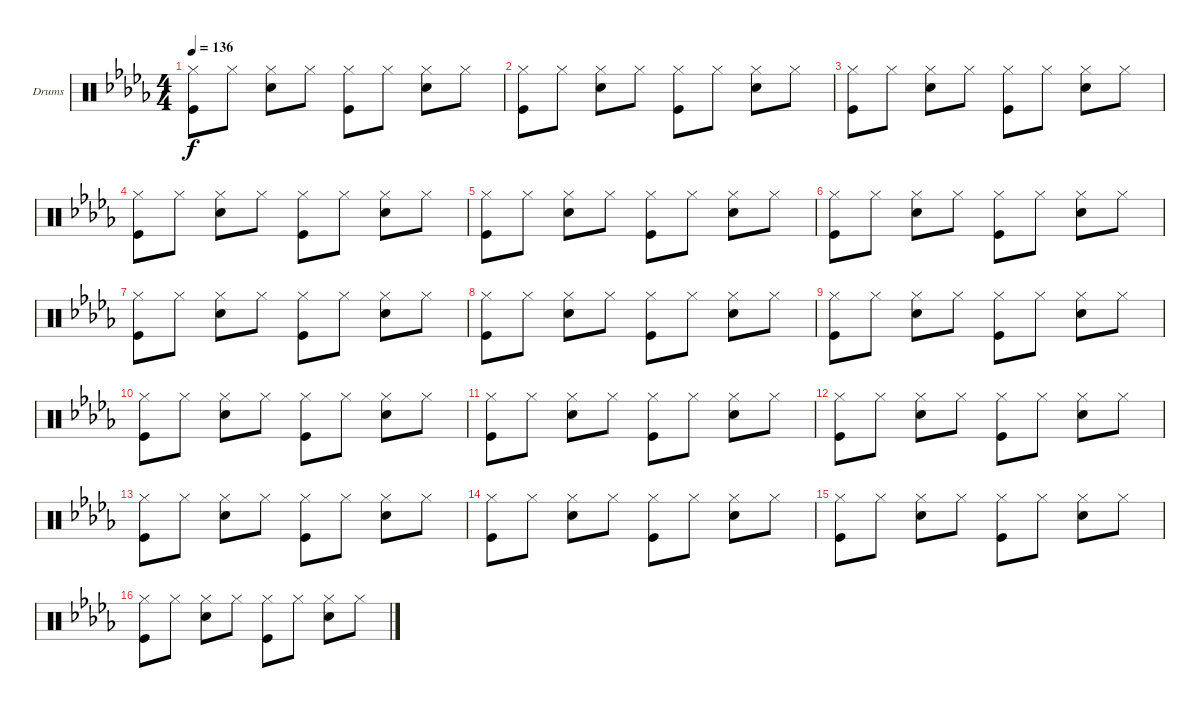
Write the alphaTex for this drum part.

\bracketExtendMode groupsimilarinstruments
\firstSystemTrackNameOrientation horizontal
\otherSystemsTrackNameOrientation horizontal
\track ("Fabrizio Moretti" "Drums") {instrument percussion}
\staff {score}
\articulation defaults
\ts (4 4)
\tempo 136
\clef neutral
\ks db
("Hi-Hat (closed)" "Kick (hit)").8{dy f} "Hi-Hat (closed)".8 ("Hi-Hat (closed)" "Snare (hit) 2").8 "Hi-Hat (closed)".8 ("Hi-Hat (closed)" "Kick (hit)").8 "Hi-Hat (closed)".8 ("Hi-Hat (closed)" "Snare (hit) 2").8 "Hi-Hat (closed)".8 |
("Hi-Hat (closed)" "Kick (hit)").8 "Hi-Hat (closed)".8 ("Hi-Hat (closed)" "Snare (hit) 2").8 "Hi-Hat (closed)".8 ("Hi-Hat (closed)" "Kick (hit)").8 "Hi-Hat (closed)".8 ("Hi-Hat (closed)" "Snare (hit) 2").8 "Hi-Hat (closed)".8 |
("Hi-Hat (closed)" "Kick (hit)").8 "Hi-Hat (closed)".8 ("Hi-Hat (closed)" "Snare (hit) 2").8 "Hi-Hat (closed)".8 ("Hi-Hat (closed)" "Kick (hit)").8 "Hi-Hat (closed)".8 ("Hi-Hat (closed)" "Snare (hit) 2").8 "Hi-Hat (closed)".8 |
("Hi-Hat (closed)" "Kick (hit)").8 "Hi-Hat (closed)".8 ("Hi-Hat (closed)" "Snare (hit) 2").8 "Hi-Hat (closed)".8 ("Hi-Hat (closed)" "Kick (hit)").8 "Hi-Hat (closed)".8 ("Hi-Hat (closed)" "Snare (hit) 2").8 "Hi-Hat (closed)".8 |
("Hi-Hat (closed)" "Kick (hit)").8 "Hi-Hat (closed)".8 ("Hi-Hat (closed)" "Snare (hit) 2").8 "Hi-Hat (closed)".8 ("Hi-Hat (closed)" "Kick (hit)").8 "Hi-Hat (closed)".8 ("Hi-Hat (closed)" "Snare (hit) 2").8 "Hi-Hat (closed)".8 |
("Hi-Hat (closed)" "Kick (hit)").8 "Hi-Hat (closed)".8 ("Hi-Hat (closed)" "Snare (hit) 2").8 "Hi-Hat (closed)".8 ("Hi-Hat (closed)" "Kick (hit)").8 "Hi-Hat (closed)".8 ("Hi-Hat (closed)" "Snare (hit) 2").8 "Hi-Hat (closed)".8 |
("Hi-Hat (closed)" "Kick (hit)").8 "Hi-Hat (closed)".8 ("Hi-Hat (closed)" "Snare (hit) 2").8 "Hi-Hat (closed)".8 ("Hi-Hat (closed)" "Kick (hit)").8 "Hi-Hat (closed)".8 ("Hi-Hat (closed)" "Snare (hit) 2").8 "Hi-Hat (closed)".8 |
("Hi-Hat (closed)" "Kick (hit)").8 "Hi-Hat (closed)".8 ("Hi-Hat (closed)" "Snare (hit) 2").8 "Hi-Hat (closed)".8 ("Hi-Hat (closed)" "Kick (hit)").8 "Hi-Hat (closed)".8 ("Hi-Hat (closed)" "Snare (hit) 2").8 "Hi-Hat (closed)".8 |
("Hi-Hat (closed)" "Kick (hit)").8 "Hi-Hat (closed)".8 ("Hi-Hat (closed)" "Snare (hit) 2").8 "Hi-Hat (closed)".8 ("Hi-Hat (closed)" "Kick (hit)").8 "Hi-Hat (closed)".8 ("Hi-Hat (closed)" "Snare (hit) 2").8 "Hi-Hat (closed)".8 |
("Hi-Hat (closed)" "Kick (hit)").8 "Hi-Hat (closed)".8 ("Hi-Hat (closed)" "Snare (hit) 2").8 "Hi-Hat (closed)".8 ("Hi-Hat (closed)" "Kick (hit)").8 "Hi-Hat (closed)".8 ("Hi-Hat (closed)" "Snare (hit) 2").8 "Hi-Hat (closed)".8 |
("Hi-Hat (closed)" "Kick (hit)").8 "Hi-Hat (closed)".8 ("Hi-Hat (closed)" "Snare (hit) 2").8 "Hi-Hat (closed)".8 ("Hi-Hat (closed)" "Kick (hit)").8 "Hi-Hat (closed)".8 ("Hi-Hat (closed)" "Snare (hit) 2").8 "Hi-Hat (closed)".8 |
("Hi-Hat (closed)" "Kick (hit)").8 "Hi-Hat (closed)".8 ("Hi-Hat (closed)" "Snare (hit) 2").8 "Hi-Hat (closed)".8 ("Hi-Hat (closed)" "Kick (hit)").8 "Hi-Hat (closed)".8 ("Hi-Hat (closed)" "Snare (hit) 2").8 "Hi-Hat (closed)".8 |
("Hi-Hat (closed)" "Kick (hit)").8 "Hi-Hat (closed)".8 ("Hi-Hat (closed)" "Snare (hit) 2").8 "Hi-Hat (closed)".8 ("Hi-Hat (closed)" "Kick (hit)").8 "Hi-Hat (closed)".8 ("Hi-Hat (closed)" "Snare (hit) 2").8 "Hi-Hat (closed)".8 |
("Hi-Hat (closed)" "Kick (hit)").8 "Hi-Hat (closed)".8 ("Hi-Hat (closed)" "Snare (hit) 2").8 "Hi-Hat (closed)".8 ("Hi-Hat (closed)" "Kick (hit)").8 "Hi-Hat (closed)".8 ("Hi-Hat (closed)" "Snare (hit) 2").8 "Hi-Hat (closed)".8 |
("Hi-Hat (closed)" "Kick (hit)").8 "Hi-Hat (closed)".8 ("Hi-Hat (closed)" "Snare (hit) 2").8 "Hi-Hat (closed)".8 ("Hi-Hat (closed)" "Kick (hit)").8 "Hi-Hat (closed)".8 ("Hi-Hat (closed)" "Snare (hit) 2").8 "Hi-Hat (closed)".8 |
("Hi-Hat (closed)" "Kick (hit)").8 "Hi-Hat (closed)".8 ("Hi-Hat (closed)" "Snare (hit) 2").8 "Hi-Hat (closed)".8 ("Hi-Hat (closed)" "Kick (hit)").8 "Hi-Hat (closed)".8 ("Hi-Hat (closed)" "Snare (hit) 2").8 "Hi-Hat (closed)".8
